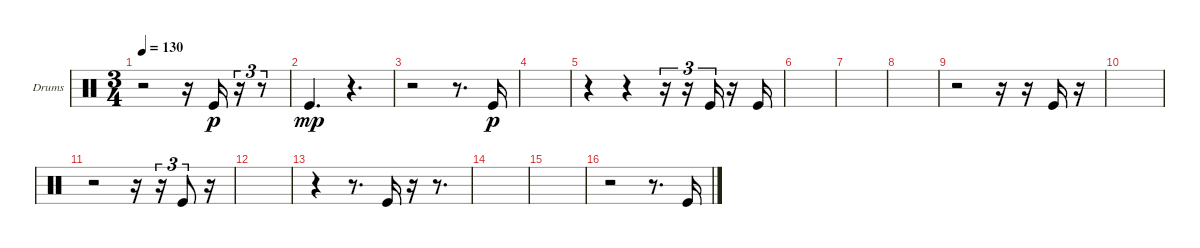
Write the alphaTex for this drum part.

\bracketExtendMode groupsimilarinstruments
\firstSystemTrackNameOrientation horizontal
\otherSystemsTrackNameOrientation horizontal
\track ("Kick" "Drums") {instrument percussion}
\staff {score}
\articulation defaults
\ts (3 4)
\tempo 130
\clef neutral
\ks c
r.2{dy p} r.16 "Kick (hit)".16 r.16{tu (3 2)} r.8{tu (3 2)} |
"Kick (hit)".4{d dy mp} r.4{d} |
r.2 r.8{d} "Kick (hit)".16{dy p} |
|
r.4 r.4 r.16{tu (3 2)} r.16{tu (3 2)} "Kick (hit)".16{tu (3 2)} r.16 "Kick (hit)".16 |
|
|
|
r.2 r.16 r.16 "Kick (hit)".16 r.16 |
|
r.2 r.16 r.16{tu (3 2)} "Kick (hit)".8{tu (3 2)} r.16 |
|
r.4 r.8{d} "Kick (hit)".16 r.16 r.8{d} |
|
|
r.2 r.8{d} "Kick (hit)".16
